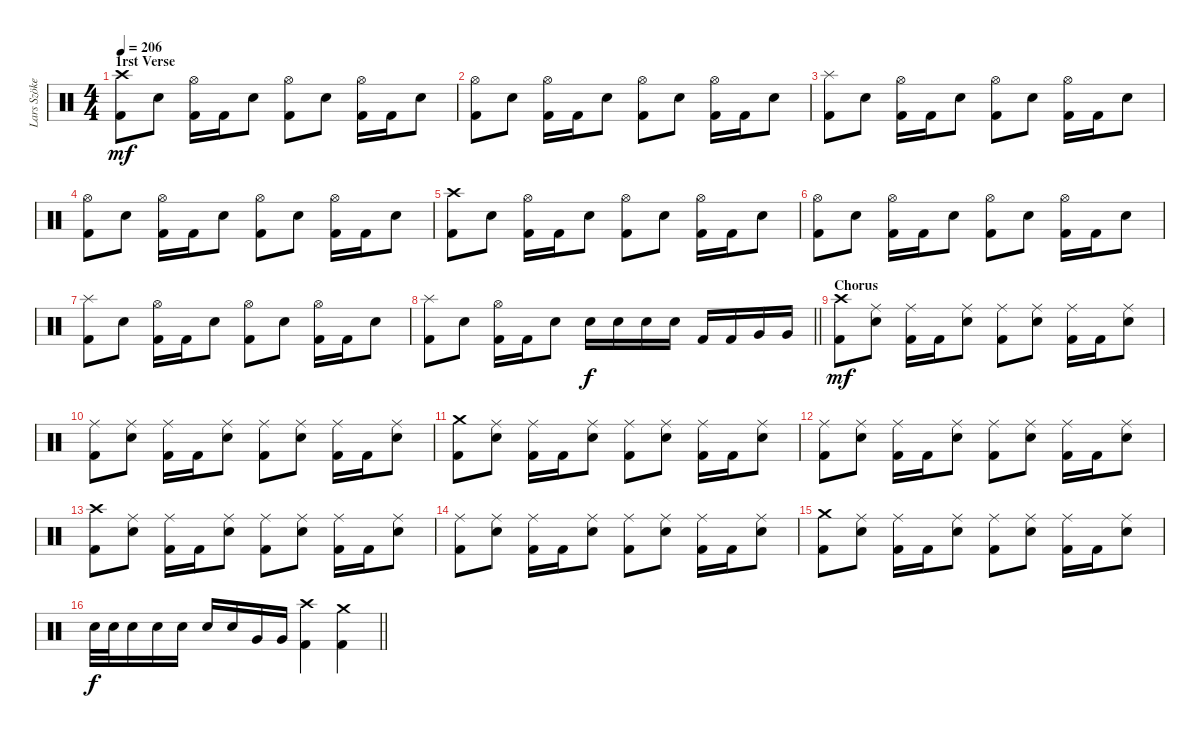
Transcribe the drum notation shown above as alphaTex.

\track ("Lars Szöke" "Lars Szöke") {instrument percussion}
\staff {score}
\articulation defaults
\ts (4 4)
\section ("" "1rst Verse ")
\tempo 206
\clef neutral
\ks c
("Crash high (hit)" "Kick (hit) 2").8{dy mf} "Snare (hit) 2".8 ("Hi-Hat (open)" "Kick (hit) 2").16 "Kick (hit) 2".16 "Snare (hit) 2".8 ("Hi-Hat (open)" "Kick (hit) 2").8 "Snare (hit) 2".8 ("Hi-Hat (open)" "Kick (hit) 2").16 "Kick (hit) 2".16 "Snare (hit) 2".8 |
("Hi-Hat (open)" "Kick (hit) 2").8 "Snare (hit) 2".8 ("Hi-Hat (open)" "Kick (hit) 2").16 "Kick (hit) 2".16 "Snare (hit) 2".8 ("Hi-Hat (open)" "Kick (hit) 2").8 "Snare (hit) 2".8 ("Hi-Hat (open)" "Kick (hit) 2").16 "Kick (hit) 2".16 "Snare (hit) 2".8 |
("Splash (hit)" "Kick (hit) 2").8 "Snare (hit) 2".8 ("Hi-Hat (open)" "Kick (hit) 2").16 "Kick (hit) 2".16 "Snare (hit) 2".8 ("Hi-Hat (open)" "Kick (hit) 2").8 "Snare (hit) 2".8 ("Hi-Hat (open)" "Kick (hit) 2").16 "Kick (hit) 2".16 "Snare (hit) 2".8 |
("Hi-Hat (open)" "Kick (hit) 2").8 "Snare (hit) 2".8 ("Hi-Hat (open)" "Kick (hit) 2").16 "Kick (hit) 2".16 "Snare (hit) 2".8 ("Hi-Hat (open)" "Kick (hit) 2").8 "Snare (hit) 2".8 ("Hi-Hat (open)" "Kick (hit) 2").16 "Kick (hit) 2".16 "Snare (hit) 2".8 |
("Crash high (hit)" "Kick (hit) 2").8 "Snare (hit) 2".8 ("Hi-Hat (open)" "Kick (hit) 2").16 "Kick (hit) 2".16 "Snare (hit) 2".8 ("Hi-Hat (open)" "Kick (hit) 2").8 "Snare (hit) 2".8 ("Hi-Hat (open)" "Kick (hit) 2").16 "Kick (hit) 2".16 "Snare (hit) 2".8 |
("Hi-Hat (open)" "Kick (hit) 2").8 "Snare (hit) 2".8 ("Hi-Hat (open)" "Kick (hit) 2").16 "Kick (hit) 2".16 "Snare (hit) 2".8 ("Hi-Hat (open)" "Kick (hit) 2").8 "Snare (hit) 2".8 ("Hi-Hat (open)" "Kick (hit) 2").16 "Kick (hit) 2".16 "Snare (hit) 2".8 |
("Splash (hit)" "Kick (hit) 2").8 "Snare (hit) 2".8 ("Hi-Hat (open)" "Kick (hit) 2").16 "Kick (hit) 2".16 "Snare (hit) 2".8 ("Hi-Hat (open)" "Kick (hit) 2").8 "Snare (hit) 2".8 ("Hi-Hat (open)" "Kick (hit) 2").16 "Kick (hit) 2".16 "Snare (hit) 2".8 |
\barLineRight lightlight
("Splash (hit)" "Kick (hit) 2").8 "Snare (hit) 2".8 ("Hi-Hat (open)" "Kick (hit) 2").16 "Kick (hit) 2".16 "Snare (hit) 2".8 "Snare (hit) 2".16{dy f} "Snare (hit) 2".16 "Snare (hit) 2".16 "Snare (hit) 2".16 "Kick (hit) 2".16 "Kick (hit) 2".16 "Very Low Tom (hit)".16 "Very Low Tom (hit)".16 |
\section ("" "Chorus")
("Crash high (hit)" "Kick (hit) 2").8{dy mf} ("Ride (middle)" "Snare (hit) 2").8 ("Ride (middle)" "Kick (hit) 2").16 "Kick (hit) 2".16 ("Ride (middle)" "Snare (hit) 2").8 ("Ride (middle)" "Kick (hit) 2").8 ("Ride (middle)" "Snare (hit) 2").8 ("Ride (middle)" "Kick (hit) 2").16 "Kick (hit) 2".16 ("Ride (middle)" "Snare (hit) 2").8 |
("Ride (middle)" "Kick (hit) 2").8 ("Ride (middle)" "Snare (hit) 2").8 ("Ride (middle)" "Kick (hit) 2").16 "Kick (hit) 2".16 ("Ride (middle)" "Snare (hit) 2").8 ("Ride (middle)" "Kick (hit) 2").8 ("Ride (middle)" "Snare (hit) 2").8 ("Ride (middle)" "Kick (hit) 2").16 "Kick (hit) 2".16 ("Ride (middle)" "Snare (hit) 2").8 |
("Crash medium (hit)" "Kick (hit) 2").8 ("Ride (middle)" "Snare (hit) 2").8 ("Ride (middle)" "Kick (hit) 2").16 "Kick (hit) 2".16 ("Ride (middle)" "Snare (hit) 2").8 ("Ride (middle)" "Kick (hit) 2").8 ("Ride (middle)" "Snare (hit) 2").8 ("Ride (middle)" "Kick (hit) 2").16 "Kick (hit) 2".16 ("Ride (middle)" "Snare (hit) 2").8 |
("Ride (middle)" "Kick (hit) 2").8 ("Ride (middle)" "Snare (hit) 2").8 ("Ride (middle)" "Kick (hit) 2").16 "Kick (hit) 2".16 ("Ride (middle)" "Snare (hit) 2").8 ("Ride (middle)" "Kick (hit) 2").8 ("Ride (middle)" "Snare (hit) 2").8 ("Ride (middle)" "Kick (hit) 2").16 "Kick (hit) 2".16 ("Ride (middle)" "Snare (hit) 2").8 |
("Crash high (hit)" "Kick (hit) 2").8 ("Ride (middle)" "Snare (hit) 2").8 ("Ride (middle)" "Kick (hit) 2").16 "Kick (hit) 2".16 ("Ride (middle)" "Snare (hit) 2").8 ("Ride (middle)" "Kick (hit) 2").8 ("Ride (middle)" "Snare (hit) 2").8 ("Ride (middle)" "Kick (hit) 2").16 "Kick (hit) 2".16 ("Ride (middle)" "Snare (hit) 2").8 |
("Ride (middle)" "Kick (hit) 2").8 ("Ride (middle)" "Snare (hit) 2").8 ("Ride (middle)" "Kick (hit) 2").16 "Kick (hit) 2".16 ("Ride (middle)" "Snare (hit) 2").8 ("Ride (middle)" "Kick (hit) 2").8 ("Ride (middle)" "Snare (hit) 2").8 ("Ride (middle)" "Kick (hit) 2").16 "Kick (hit) 2".16 ("Ride (middle)" "Snare (hit) 2").8 |
("Crash medium (hit)" "Kick (hit) 2").8 ("Ride (middle)" "Snare (hit) 2").8 ("Ride (middle)" "Kick (hit) 2").16 "Kick (hit) 2".16 ("Ride (middle)" "Snare (hit) 2").8 ("Ride (middle)" "Kick (hit) 2").8 ("Ride (middle)" "Snare (hit) 2").8 ("Ride (middle)" "Kick (hit) 2").16 "Kick (hit) 2".16 ("Ride (middle)" "Snare (hit) 2").8 |
\barLineRight lightlight "Snare (hit) 2".32{dy f} "Snare (hit) 2".32 "Snare (hit) 2".16 "Snare (hit) 2".16 "Snare (hit) 2".16 "Snare (hit) 2".16 "Snare (hit) 2".16 "Very Low Tom (hit)".16 "Very Low Tom (hit)".16
("Crash high (hit)" "Kick (hit) 2").4 ("Crash medium (hit)" "Kick (hit) 2").4
